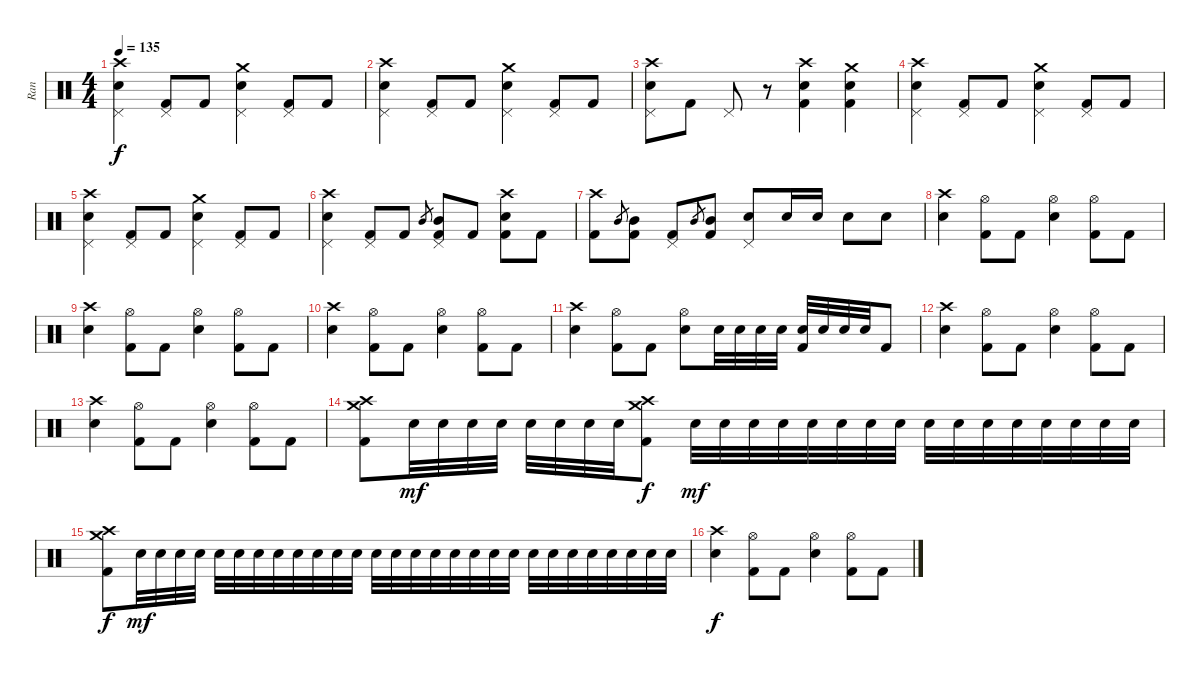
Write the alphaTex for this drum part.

\track ("Ran" "Ran") {instrument percussion}
\staff {score}
\articulation defaults
\ts (4 4)
\tempo 135
\clef neutral
\ks c
("Crash high (hit)" "Snare (hit) 2" "Pedal Hi-Hat (hit)").4{dy f} ("Pedal Hi-Hat (hit)" "Kick (hit) 2").8 "Kick (hit) 2".8 ("Crash medium (hit)" "Snare (hit) 2" "Pedal Hi-Hat (hit)").4 ("Pedal Hi-Hat (hit)" "Kick (hit) 2").8 "Kick (hit) 2".8 |
("Crash high (hit)" "Snare (hit) 2" "Pedal Hi-Hat (hit)").4 ("Pedal Hi-Hat (hit)" "Kick (hit) 2").8 "Kick (hit) 2".8 ("Crash medium (hit)" "Snare (hit) 2" "Pedal Hi-Hat (hit)").4 ("Pedal Hi-Hat (hit)" "Kick (hit) 2").8 "Kick (hit) 2".8 |
("Crash high (hit)" "Snare (hit) 2" "Pedal Hi-Hat (hit)").8 "Kick (hit) 2".8 "Pedal Hi-Hat (hit)".8 r.8 ("Crash high (hit)" "Snare (hit) 2" "Kick (hit) 2").4 ("Crash medium (hit)" "Snare (hit) 2" "Kick (hit) 2").4 |
("Crash high (hit)" "Snare (hit) 2" "Pedal Hi-Hat (hit)").4 ("Pedal Hi-Hat (hit)" "Kick (hit) 2").8 "Kick (hit) 2".8 ("Crash medium (hit)" "Snare (hit) 2" "Pedal Hi-Hat (hit)").4 ("Pedal Hi-Hat (hit)" "Kick (hit) 2").8 "Kick (hit) 2".8 |
("Crash high (hit)" "Snare (hit) 2" "Pedal Hi-Hat (hit)").4 ("Pedal Hi-Hat (hit)" "Kick (hit) 2").8 "Kick (hit) 2".8 ("Crash medium (hit)" "Snare (hit) 2" "Pedal Hi-Hat (hit)").4 ("Pedal Hi-Hat (hit)" "Kick (hit) 2").8 "Kick (hit) 2".8 |
("Crash high (hit)" "Snare (hit) 2" "Pedal Hi-Hat (hit)").4 ("Pedal Hi-Hat (hit)" "Kick (hit) 2").8 "Kick (hit) 2".8 "Mid Tom (hit)".8{gr} ("Pedal Hi-Hat (hit)" "Mid Tom (hit)" "Kick (hit) 2").8 "Kick (hit) 2".8 ("Crash high (hit)" "Snare (hit) 2" "Kick (hit) 2").8 "Kick (hit) 2".8 |
("Crash high (hit)" "Kick (hit) 2").8 "Mid Tom (hit)".8{gr} ("Mid Tom (hit)" "Kick (hit) 2").8 ("Pedal Hi-Hat (hit)" "Kick (hit) 2").8 "Mid Tom (hit)".8{gr} ("Mid Tom (hit)" "Kick (hit) 2").8 ("Pedal Hi-Hat (hit)" "Snare (hit) 2").8 "Snare (hit) 2".16 "Snare (hit) 2".16 "Snare (hit) 2".8 "Snare (hit) 2".8 |
("Crash high (hit)" "Snare (hit) 2").4 ("Hi-Hat (open)" "Kick (hit) 2").8 "Kick (hit) 2".8 ("Hi-Hat (open)" "Snare (hit) 2").4 ("Hi-Hat (open)" "Kick (hit) 2").8 "Kick (hit) 2".8 |
("Crash high (hit)" "Snare (hit) 2").4 ("Hi-Hat (open)" "Kick (hit) 2").8 "Kick (hit) 2".8 ("Hi-Hat (open)" "Snare (hit) 2").4 ("Hi-Hat (open)" "Kick (hit) 2").8 "Kick (hit) 2".8 |
("Crash high (hit)" "Snare (hit) 2").4 ("Hi-Hat (open)" "Kick (hit) 2").8 "Kick (hit) 2".8 ("Hi-Hat (open)" "Snare (hit) 2").4 ("Hi-Hat (open)" "Kick (hit) 2").8 "Kick (hit) 2".8 |
("Crash high (hit)" "Snare (hit) 2").4 ("Hi-Hat (open)" "Kick (hit) 2").8 "Kick (hit) 2".8 ("Hi-Hat (open)" "Snare (hit) 2").8 "Snare (hit) 2".32 "Snare (hit) 2".32 "Snare (hit) 2".32 "Snare (hit) 2".32 ("Snare (hit) 2" "Kick (hit) 2").32 "Snare (hit) 2".32 "Snare (hit) 2".32 "Snare (hit) 2".32 "Kick (hit) 2".8 |
("Crash high (hit)" "Snare (hit) 2").4 ("Hi-Hat (open)" "Kick (hit) 2").8 "Kick (hit) 2".8 ("Hi-Hat (open)" "Snare (hit) 2").4 ("Hi-Hat (open)" "Kick (hit) 2").8 "Kick (hit) 2".8 |
("Crash high (hit)" "Snare (hit) 2").4 ("Hi-Hat (open)" "Kick (hit) 2").8 "Kick (hit) 2".8 ("Hi-Hat (open)" "Snare (hit) 2").4 ("Hi-Hat (open)" "Kick (hit) 2").8 "Kick (hit) 2".8 |
("Crash high (hit)" "Crash medium (hit)" "Kick (hit) 2").8 "Snare (hit) 2".32{dy mf} "Snare (hit) 2".32 "Snare (hit) 2".32 "Snare (hit) 2".32 "Snare (hit) 2".32 "Snare (hit) 2".32 "Snare (hit) 2".32 "Snare (hit) 2".32 ("Crash high (hit)" "Crash medium (hit)" "Kick (hit) 2").8{dy f} "Snare (hit) 2".32{dy mf} "Snare (hit) 2".32 "Snare (hit) 2".32 "Snare (hit) 2".32 "Snare (hit) 2".32 "Snare (hit) 2".32 "Snare (hit) 2".32 "Snare (hit) 2".32 "Snare (hit) 2".32 "Snare (hit) 2".32 "Snare (hit) 2".32 "Snare (hit) 2".32 "Snare (hit) 2".32 "Snare (hit) 2".32 "Snare (hit) 2".32 "Snare (hit) 2".32 |
("Crash high (hit)" "Crash medium (hit)" "Kick (hit) 2").8{dy f} "Snare (hit) 2".32{dy mf} "Snare (hit) 2".32 "Snare (hit) 2".32 "Snare (hit) 2".32 "Snare (hit) 2".32 "Snare (hit) 2".32 "Snare (hit) 2".32 "Snare (hit) 2".32 "Snare (hit) 2".32 "Snare (hit) 2".32 "Snare (hit) 2".32 "Snare (hit) 2".32 "Snare (hit) 2".32 "Snare (hit) 2".32 "Snare (hit) 2".32 "Snare (hit) 2".32 "Snare (hit) 2".32 "Snare (hit) 2".32 "Snare (hit) 2".32 "Snare (hit) 2".32 "Snare (hit) 2".32 "Snare (hit) 2".32 "Snare (hit) 2".32 "Snare (hit) 2".32 "Snare (hit) 2".32 "Snare (hit) 2".32 "Snare (hit) 2".32 "Snare (hit) 2".32 |
("Crash high (hit)" "Snare (hit) 2").4{dy f} ("Hi-Hat (open)" "Kick (hit) 2").8 "Kick (hit) 2".8 ("Hi-Hat (open)" "Snare (hit) 2").4 ("Hi-Hat (open)" "Kick (hit) 2").8 "Kick (hit) 2".8
